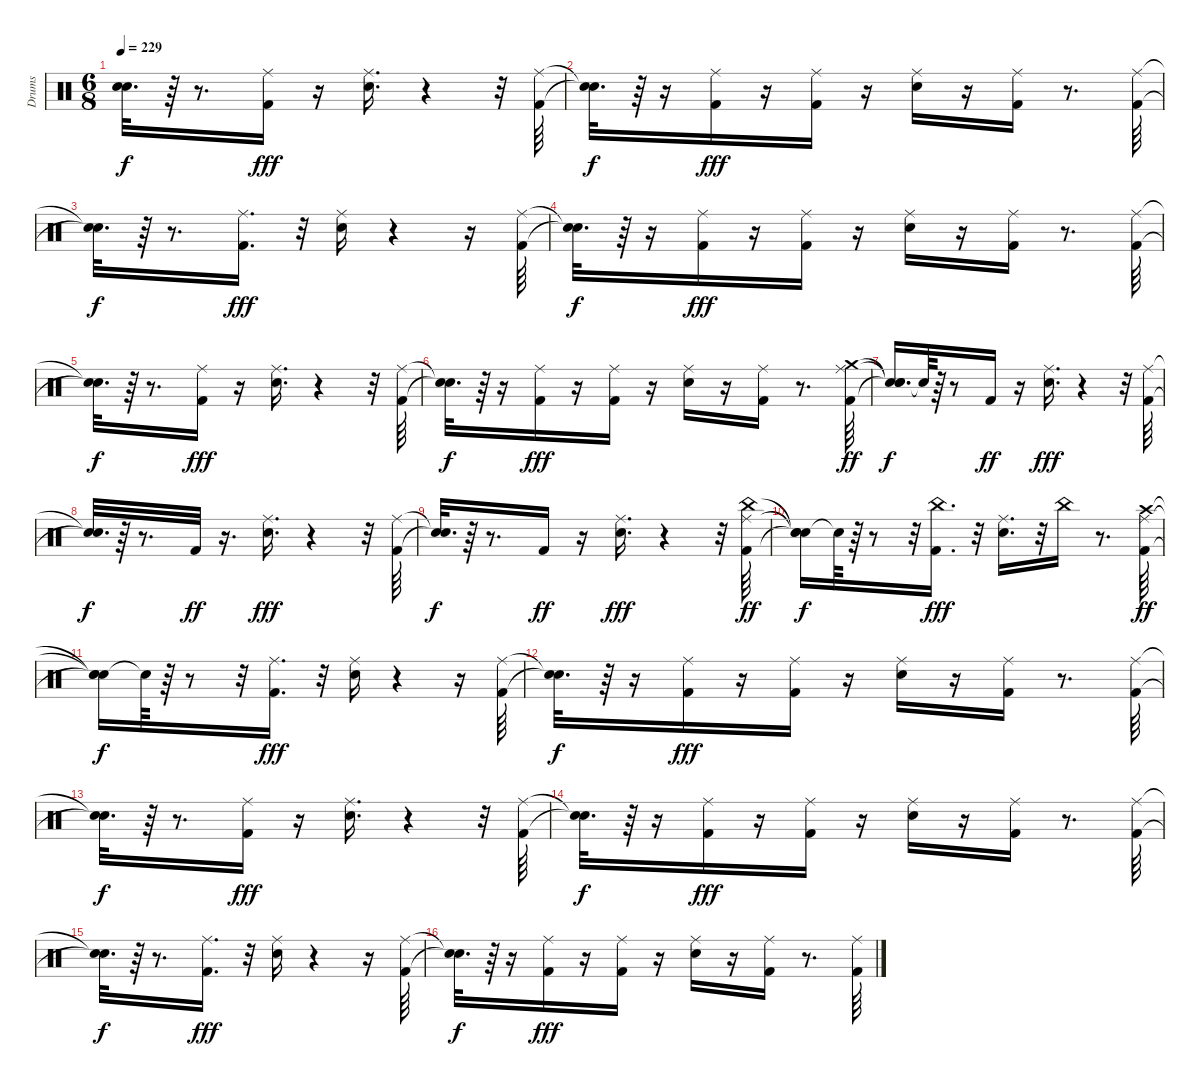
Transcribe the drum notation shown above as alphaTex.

\track ("Drums" "Drums") {instrument percussion}
\staff {score}
\articulation defaults
\ts (6 8)
\tempo 229
\clef neutral
\ks c
("Snare (hit)"{t} "Snare (hit)"{t}).32{d dy f} r.64 r.8{d} ("Kick (hit) 2" "Ride (middle)").16{dy fff} r.16 ("Snare (hit) 2" "Ride (middle)").16{d} r.4 r.32 ("Kick (hit) 2" "Ride (middle)").64 |
("Snare (hit)"{t} "Snare (hit)"{t}).32{d dy f} r.64 r.16 ("Kick (hit) 2" "Ride (middle)").16{dy fff} r.16 ("Kick (hit) 2" "Ride (middle)").16 r.16 ("Snare (hit) 2" "Ride (middle)").16 r.16 ("Kick (hit) 2" "Ride (middle)").16 r.8{d} ("Kick (hit) 2" "Ride (middle)").64 |
("Snare (hit)"{t} "Snare (hit)"{t}).32{d dy f} r.64 r.8{d} ("Kick (hit) 2" "Ride (middle)").16{d dy fff} r.32 ("Snare (hit) 2" "Ride (middle)").16 r.4 r.16 ("Kick (hit) 2" "Ride (middle)").64 |
("Snare (hit)"{t} "Snare (hit)"{t}).32{d dy f} r.64 r.16 ("Kick (hit) 2" "Ride (middle)").16{dy fff} r.16 ("Kick (hit) 2" "Ride (middle)").16 r.16 ("Snare (hit) 2" "Ride (middle)").16 r.16 ("Kick (hit) 2" "Ride (middle)").16 r.8{d} ("Kick (hit) 2" "Ride (middle)").64 |
("Snare (hit)"{t} "Snare (hit)"{t}).32{d dy f} r.64 r.8{d} ("Kick (hit) 2" "Ride (middle)").16{dy fff} r.16 ("Snare (hit) 2" "Ride (middle)").16{d} r.4 r.32 ("Kick (hit) 2" "Ride (middle)").64 |
("Snare (hit)"{t} "Snare (hit)"{t}).32{d dy f} r.64 r.16 ("Kick (hit) 2" "Ride (middle)").16{dy fff} r.16 ("Kick (hit) 2" "Ride (middle)").16 r.16 ("Snare (hit) 2" "Ride (middle)").16 r.16 ("Kick (hit) 2" "Ride (middle)").16 r.8{d} ("Kick (hit) 2" "Ride (middle)" "Crash medium (hit)").64{dy ff} |
("Snare (hit)"{t} "Snare (hit)"{t} "Snare (hit)"{t}).16{d dy f} "Snare (hit)"{t}.64 r.64 r.8 "Kick (hit) 2".16{dy ff} r.16 ("Snare (hit) 2" "Ride (middle)").16{d dy fff} r.4 r.32 ("Kick (hit) 2" "Ride (middle)").64 |
("Snare (hit)"{t} "Snare (hit)"{t}).32{d dy f} r.64 r.8{d} "Kick (hit) 2".32{dy ff} r.16{d} ("Snare (hit) 2" "Ride (middle)").16{d dy fff} r.4 r.32 ("Kick (hit) 2" "Ride (middle)").64 |
("Snare (hit)"{t} "Snare (hit)"{t}).32{d dy f} r.64 r.8{d} "Kick (hit) 2".16{dy ff} r.16 ("Snare (hit) 2" "Ride (middle)").16{d dy fff} r.4 r.32 ("Kick (hit) 2" "Ride (middle)" "China (hit)").64{dy ff} |
("Snare (hit)"{t} "Snare (hit)"{t} "Snare (hit)"{t}).16{dy f} "Snare (hit)"{t}.64 r.64 r.8 r.32 ("Kick (hit) 2" "China (hit)").16{d dy fff} r.32 ("Snare (hit) 2" "Ride (middle)").16{d} r.32 "China (hit)".16 r.8{d} ("Kick (hit) 2" "Ride (middle)" "Crash high (hit)").64{dy ff} |
("Snare (hit)"{t} "Snare (hit)"{t} "Snare (hit)"{t}).16{dy f} "Snare (hit)"{t}.64 r.64 r.8 r.32 ("Kick (hit) 2" "Ride (middle)").16{d dy fff} r.32 ("Snare (hit) 2" "Ride (middle)").16 r.4 r.16 ("Kick (hit) 2" "Ride (middle)").64 |
("Snare (hit)"{t} "Snare (hit)"{t}).32{d dy f} r.64 r.16 ("Kick (hit) 2" "Ride (middle)").16{dy fff} r.16 ("Kick (hit) 2" "Ride (middle)").16 r.16 ("Snare (hit) 2" "Ride (middle)").16 r.16 ("Kick (hit) 2" "Ride (middle)").16 r.8{d} ("Kick (hit) 2" "Ride (middle)").64 |
("Snare (hit)"{t} "Snare (hit)"{t}).32{d dy f} r.64 r.8{d} ("Kick (hit) 2" "Ride (middle)").16{dy fff} r.16 ("Snare (hit) 2" "Ride (middle)").16{d} r.4 r.32 ("Kick (hit) 2" "Ride (middle)").64 |
("Snare (hit)"{t} "Snare (hit)"{t}).32{d dy f} r.64 r.16 ("Kick (hit) 2" "Ride (middle)").16{dy fff} r.16 ("Kick (hit) 2" "Ride (middle)").16 r.16 ("Snare (hit) 2" "Ride (middle)").16 r.16 ("Kick (hit) 2" "Ride (middle)").16 r.8{d} ("Kick (hit) 2" "Ride (middle)").64 |
("Snare (hit)"{t} "Snare (hit)"{t}).32{d dy f} r.64 r.8{d} ("Kick (hit) 2" "Ride (middle)").16{d dy fff} r.32 ("Snare (hit) 2" "Ride (middle)").16 r.4 r.16 ("Kick (hit) 2" "Ride (middle)").64 |
("Snare (hit)"{t} "Snare (hit)"{t}).32{d dy f} r.64 r.16 ("Kick (hit) 2" "Ride (middle)").16{dy fff} r.16 ("Kick (hit) 2" "Ride (middle)").16 r.16 ("Snare (hit) 2" "Ride (middle)").16 r.16 ("Kick (hit) 2" "Ride (middle)").16 r.8{d} ("Kick (hit) 2" "Ride (middle)").64
